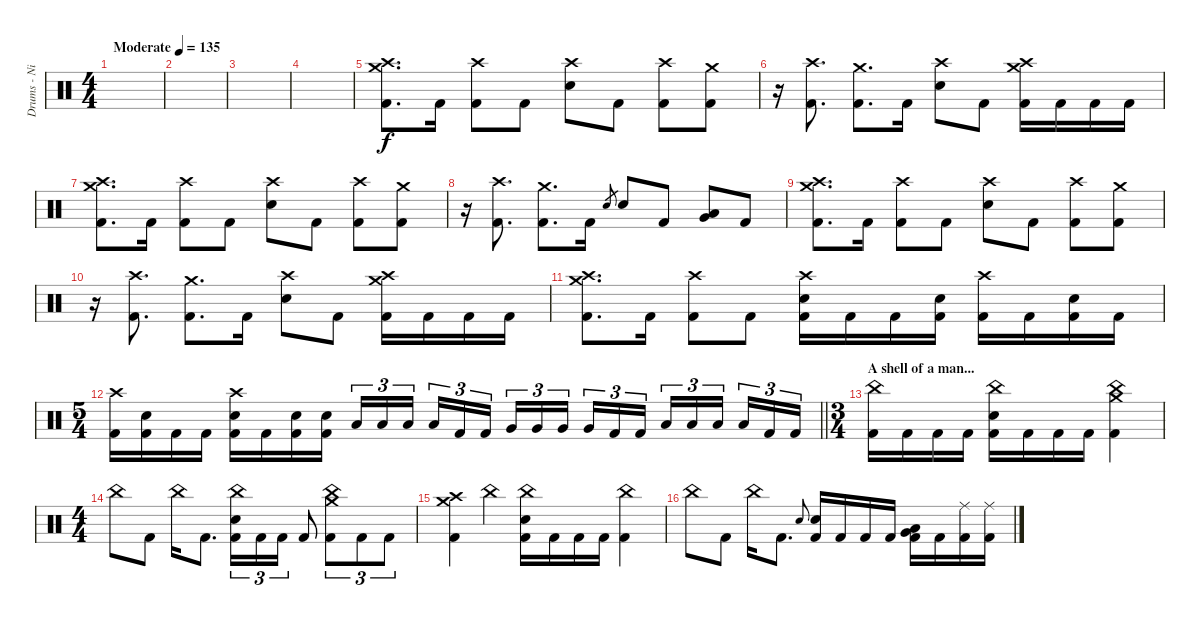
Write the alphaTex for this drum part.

\track ("Drums - Nic" "Drums - Ni") {instrument percussion}
\staff {score}
\articulation defaults
\ts (4 4)
\tempo (135 "Moderate")
\clef neutral
\ks c
|
|
|
|
("Crash high (hit)" "Crash medium (hit)" "Kick (hit) 2").8{d} "Kick (hit) 2".16 ("Crash high (hit)" "Kick (hit) 2").8 "Kick (hit) 2".8 ("Crash high (hit)" "Electric Snare (hit)").8 "Kick (hit) 2".8 ("Crash high (hit)" "Kick (hit) 2").8 ("Crash medium (hit)" "Kick (hit) 2").8 |
r.16 ("Crash high (hit)" "Kick (hit) 2").8{d} ("Crash medium (hit)" "Kick (hit) 2").8{d} "Kick (hit) 2".16 ("Crash high (hit)" "Electric Snare (hit)").8 "Kick (hit) 2".8 ("Crash high (hit)" "Crash medium (hit)" "Kick (hit) 2").16 "Kick (hit) 2".16 "Kick (hit) 2".16 "Kick (hit) 2".16 |
("Crash high (hit)" "Crash medium (hit)" "Kick (hit) 2").8{d} "Kick (hit) 2".16 ("Crash high (hit)" "Kick (hit) 2").8 "Kick (hit) 2".8 ("Crash high (hit)" "Electric Snare (hit)").8 "Kick (hit) 2".8 ("Crash high (hit)" "Kick (hit) 2").8 ("Crash medium (hit)" "Kick (hit) 2").8 |
r.16 ("Crash high (hit)" "Kick (hit) 2").8{d} ("Crash medium (hit)" "Kick (hit) 2").8{d} "Kick (hit) 2".16 "Electric Snare (hit)".8{gr} "Electric Snare (hit)".8 "Kick (hit) 2".8 ("Very Low Tom (hit)" "Low Floor Tom (hit)").8 "Kick (hit) 2".8 |
("Crash high (hit)" "Crash medium (hit)" "Kick (hit) 2").8{d} "Kick (hit) 2".16 ("Crash high (hit)" "Kick (hit) 2").8 "Kick (hit) 2".8 ("Crash high (hit)" "Electric Snare (hit)").8 "Kick (hit) 2".8 ("Crash high (hit)" "Kick (hit) 2").8 ("Crash medium (hit)" "Kick (hit) 2").8 |
r.16 ("Crash high (hit)" "Kick (hit) 2").8{d} ("Crash medium (hit)" "Kick (hit) 2").8{d} "Kick (hit) 2".16 ("Crash high (hit)" "Electric Snare (hit)").8 "Kick (hit) 2".8 ("Crash high (hit)" "Crash medium (hit)" "Kick (hit) 2").16 "Kick (hit) 2".16 "Kick (hit) 2".16 "Kick (hit) 2".16 |
("Crash high (hit)" "Crash medium (hit)" "Kick (hit) 2").8{d} "Kick (hit) 2".16 ("Crash high (hit)" "Kick (hit) 2").8 "Kick (hit) 2".8 ("Crash high (hit)" "Electric Snare (hit)" "Kick (hit) 2").16 "Kick (hit) 2".16 "Kick (hit) 2".16 ("Electric Snare (hit)" "Kick (hit) 2").16 ("Crash high (hit)" "Kick (hit) 2").16 "Kick (hit) 2".16 ("Electric Snare (hit)" "Kick (hit) 2").16 "Kick (hit) 2".16 |
\ts (5 4)
\barLineRight lightlight
("Crash high (hit)" "Kick (hit) 2").16 ("Electric Snare (hit)" "Kick (hit) 2").16 "Kick (hit) 2".16 "Kick (hit) 2".16 ("Crash high (hit)" "Electric Snare (hit)" "Kick (hit) 2").16 "Kick (hit) 2".16 ("Electric Snare (hit)" "Kick (hit) 2").16 ("Electric Snare (hit)" "Kick (hit) 2").16 "Low Tom (hit)".16{tu (3 2)} "Low Tom (hit)".16{tu (3 2)} "Low Tom (hit)".16{tu (3 2) beam splitsecondary} "Low Tom (hit)".16{tu (3 2)} "Kick (hit) 2".16{tu (3 2)} "Kick (hit) 2".16{tu (3 2)} "Very Low Tom (hit)".16{tu (3 2)} "Very Low Tom (hit)".16{tu (3 2)} "Very Low Tom (hit)".16{tu (3 2) beam splitsecondary} "Very Low Tom (hit)".16{tu (3 2)} "Kick (hit) 2".16{tu (3 2)} "Kick (hit) 2".16{tu (3 2)} "Low Floor Tom (hit)".16{tu (3 2)} "Low Floor Tom (hit)".16{tu (3 2)} "Low Floor Tom (hit)".16{tu (3 2) beam splitsecondary} "Low Floor Tom (hit)".16{tu (3 2)} "Kick (hit) 2".16{tu (3 2)} "Kick (hit) 2".16{tu (3 2)} |
\ts (3 4)
\section ("" "A shell of a man...")
("China (hit)" "Kick (hit) 2").16 "Kick (hit) 2".16 "Kick (hit) 2".16 "Kick (hit) 2".16 ("China (hit)" "Electric Snare (hit)" "Kick (hit) 2").16 "Kick (hit) 2".16 "Kick (hit) 2".16 "Kick (hit) 2".16 ("China (hit)" "Crash medium (hit)" "Kick (hit) 2").4 |
\ts (4 4)
"China (hit)".8 "Kick (hit) 2".8 "China (hit)".16 "Kick (hit) 2".8{d} ("China (hit)" "Electric Snare (hit)" "Kick (hit) 2").16{tu (3 2)} "Kick (hit) 2".16{tu (3 2)} "Kick (hit) 2".16{tu (3 2)} "Kick (hit) 2".8 ("China (hit)" "Crash medium (hit)" "Kick (hit) 2").8{tu (3 2)} "Kick (hit) 2".8{tu (3 2)} "Kick (hit) 2".8{tu (3 2)} |
("Crash high (hit)" "Crash medium (hit)" "Kick (hit) 2").4 "China (hit)".4 ("China (hit)" "Electric Snare (hit)" "Kick (hit) 2").16 "Kick (hit) 2".16 "Kick (hit) 2".16 "Kick (hit) 2".16 ("China (hit)" "Kick (hit) 2").4 |
"China (hit)".8 "Kick (hit) 2".8 "China (hit)".16 "Kick (hit) 2".8{d} "Electric Snare (hit)".8{gr onbeat} ("Electric Snare (hit)" "Kick (hit) 2").16 "Kick (hit) 2".16 "Kick (hit) 2".16 "Kick (hit) 2".16 ("Very Low Tom (hit)" "Low Floor Tom (hit)" "Kick (hit) 2").16 "Kick (hit) 2".16 ("Ride (middle)" "Kick (hit) 2").16 ("Ride (middle)" "Kick (hit) 2").16
